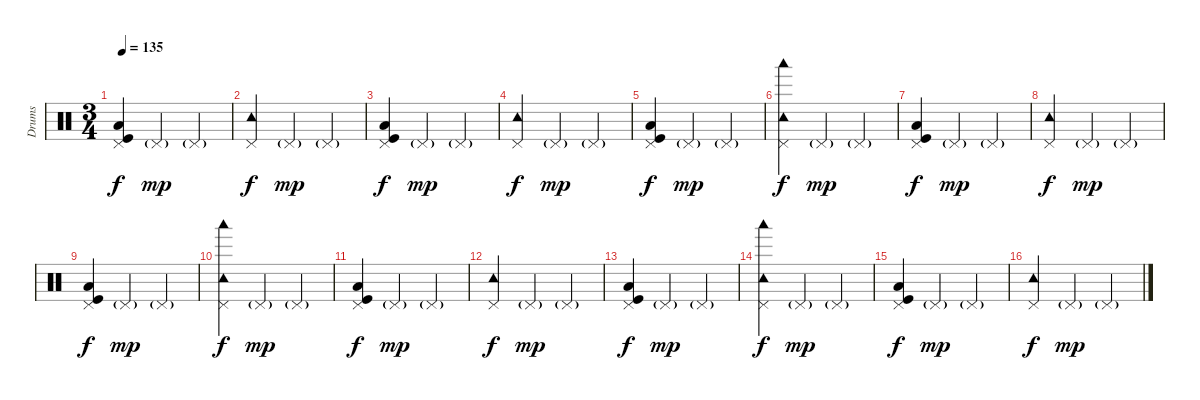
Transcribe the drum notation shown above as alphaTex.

\track ("Drums" "Drums") {instrument percussion}
\staff {score}
\articulation defaults
\ts (3 4)
\tempo 135
\clef neutral
\ks c
("Pedal Hi-Hat (hit)" "Low Floor Tom (hit)" "Kick (hit)").4{dy f} "Pedal Hi-Hat (hit)"{g}.4{dy mp} "Pedal Hi-Hat (hit)"{g}.4 |
("Pedal Hi-Hat (hit)" "Tambourine (hit)").4{dy f} "Pedal Hi-Hat (hit)"{g}.4{dy mp} "Pedal Hi-Hat (hit)"{g}.4 |
("Pedal Hi-Hat (hit)" "Low Floor Tom (hit)" "Kick (hit)").4{dy f} "Pedal Hi-Hat (hit)"{g}.4{dy mp} "Pedal Hi-Hat (hit)"{g}.4 |
("Pedal Hi-Hat (hit)" "Tambourine (hit)").4{dy f} "Pedal Hi-Hat (hit)"{g}.4{dy mp} "Pedal Hi-Hat (hit)"{g}.4 |
("Pedal Hi-Hat (hit)" "Low Floor Tom (hit)" "Kick (hit)").4{dy f} "Pedal Hi-Hat (hit)"{g}.4{dy mp} "Pedal Hi-Hat (hit)"{g}.4 |
("Pedal Hi-Hat (hit)" "Woodblock low (hit)" "Tambourine (hit)").4{dy f} "Pedal Hi-Hat (hit)"{g}.4{dy mp} "Pedal Hi-Hat (hit)"{g}.4 |
("Pedal Hi-Hat (hit)" "Low Floor Tom (hit)" "Kick (hit)").4{dy f} "Pedal Hi-Hat (hit)"{g}.4{dy mp} "Pedal Hi-Hat (hit)"{g}.4 |
("Pedal Hi-Hat (hit)" "Tambourine (hit)").4{dy f} "Pedal Hi-Hat (hit)"{g}.4{dy mp} "Pedal Hi-Hat (hit)"{g}.4 |
("Pedal Hi-Hat (hit)" "Low Floor Tom (hit)" "Kick (hit)").4{dy f} "Pedal Hi-Hat (hit)"{g}.4{dy mp} "Pedal Hi-Hat (hit)"{g}.4 |
("Pedal Hi-Hat (hit)" "Woodblock low (hit)" "Tambourine (hit)").4{dy f} "Pedal Hi-Hat (hit)"{g}.4{dy mp} "Pedal Hi-Hat (hit)"{g}.4 |
("Pedal Hi-Hat (hit)" "Low Floor Tom (hit)" "Kick (hit)").4{dy f} "Pedal Hi-Hat (hit)"{g}.4{dy mp} "Pedal Hi-Hat (hit)"{g}.4 |
("Pedal Hi-Hat (hit)" "Tambourine (hit)").4{dy f} "Pedal Hi-Hat (hit)"{g}.4{dy mp} "Pedal Hi-Hat (hit)"{g}.4 |
("Pedal Hi-Hat (hit)" "Low Floor Tom (hit)" "Kick (hit)").4{dy f} "Pedal Hi-Hat (hit)"{g}.4{dy mp} "Pedal Hi-Hat (hit)"{g}.4 |
("Pedal Hi-Hat (hit)" "Woodblock low (hit)" "Tambourine (hit)").4{dy f} "Pedal Hi-Hat (hit)"{g}.4{dy mp} "Pedal Hi-Hat (hit)"{g}.4 |
("Pedal Hi-Hat (hit)" "Low Floor Tom (hit)" "Kick (hit)").4{dy f} "Pedal Hi-Hat (hit)"{g}.4{dy mp} "Pedal Hi-Hat (hit)"{g}.4 |
("Pedal Hi-Hat (hit)" "Tambourine (hit)").4{dy f} "Pedal Hi-Hat (hit)"{g}.4{dy mp} "Pedal Hi-Hat (hit)"{g}.4
